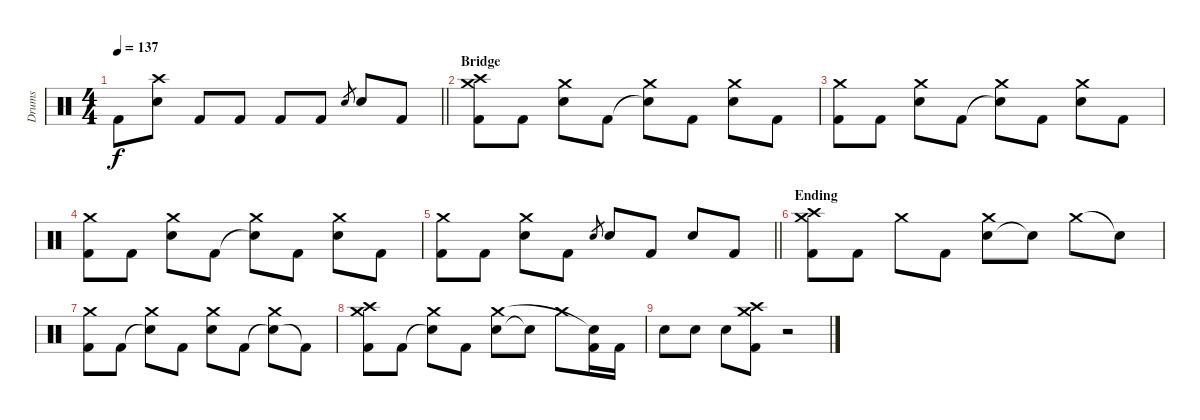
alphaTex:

\track ("Drums" "Drums") {instrument percussion}
\staff {score}
\articulation defaults
\ts (4 4)
\tempo 137
\clef neutral
\barLineRight lightlight
\ks c "Kick (hit) 2".8{dy f}
("Electric Snare (hit)" "Crash high (hit)").8 "Kick (hit) 2".8 "Kick (hit) 2".8 "Kick (hit) 2".8 "Kick (hit) 2".8 "Electric Snare (hit)".8{gr} "Electric Snare (hit)".8 "Kick (hit) 2".8 |
\section ("" "Bridge")
("Kick (hit) 2" "Crash medium (hit)" "Crash high (hit)").8 "Kick (hit) 2".8 ("Electric Snare (hit)" "Crash medium (hit)").8 "Kick (hit) 2".8 ("Snare (hit)"{t} "Crash medium (hit)").8 "Kick (hit) 2".8 ("Electric Snare (hit)" "Crash medium (hit)").8 "Kick (hit) 2".8 |
("Kick (hit) 2" "Crash medium (hit)").8 "Kick (hit) 2".8 ("Electric Snare (hit)" "Crash medium (hit)").8 "Kick (hit) 2".8 ("Snare (hit)"{t} "Crash medium (hit)").8 "Kick (hit) 2".8 ("Electric Snare (hit)" "Crash medium (hit)").8 "Kick (hit) 2".8 |
("Kick (hit) 2" "Crash medium (hit)").8 "Kick (hit) 2".8 ("Electric Snare (hit)" "Crash medium (hit)").8 "Kick (hit) 2".8 ("Snare (hit)"{t} "Crash medium (hit)").8 "Kick (hit) 2".8 ("Electric Snare (hit)" "Crash medium (hit)").8 "Kick (hit) 2".8 |
\barLineRight lightlight
("Kick (hit) 2" "Crash medium (hit)").8 "Kick (hit) 2".8 ("Electric Snare (hit)" "Crash medium (hit)").8 "Kick (hit) 2".8 "Electric Snare (hit)".8{gr} "Electric Snare (hit)".8 "Kick (hit) 2".8 "Electric Snare (hit)".8 "Kick (hit) 2".8 |
\section ("" "Ending")
("Kick (hit) 2" "Crash medium (hit)" "Crash high (hit)").8 "Kick (hit) 2".8 "Crash medium (hit)".8 "Kick (hit) 2".8 ("Electric Snare (hit)" "Crash medium (hit)").8 "Snare (hit)"{t}.8 "Crash medium (hit)".8 "Snare (hit)"{t}.8 |
("Kick (hit) 2" "Crash medium (hit)").8 "Kick (hit) 2".8 ("Electric Snare (hit)"{t} "Crash medium (hit)").8 "Kick (hit) 2".8 ("Electric Snare (hit)" "Crash medium (hit)").8 "Kick (hit) 2".8 ("Electric Snare (hit)"{t} "Crash medium (hit)").8 "Kick (hit) 2"{t}.8 |
("Kick (hit) 2" "Crash medium (hit)" "Crash high (hit)").8 "Kick (hit) 2".8 ("Electric Snare (hit)"{t} "Crash medium (hit)").8 "Kick (hit) 2".8 ("Electric Snare (hit)" "Crash medium (hit)").8 "Snare (hit)"{t}.8 "Crash medium (hit)".8 ("Kick (hit) 2" "Snare (hit)"{t}).16 "Kick (hit) 2".16 |
"Electric Snare (hit)".8 "Electric Snare (hit)".8 "Electric Snare (hit)".8 ("Kick (hit) 2" "Crash medium (hit)" "Crash high (hit)").8 r.2
